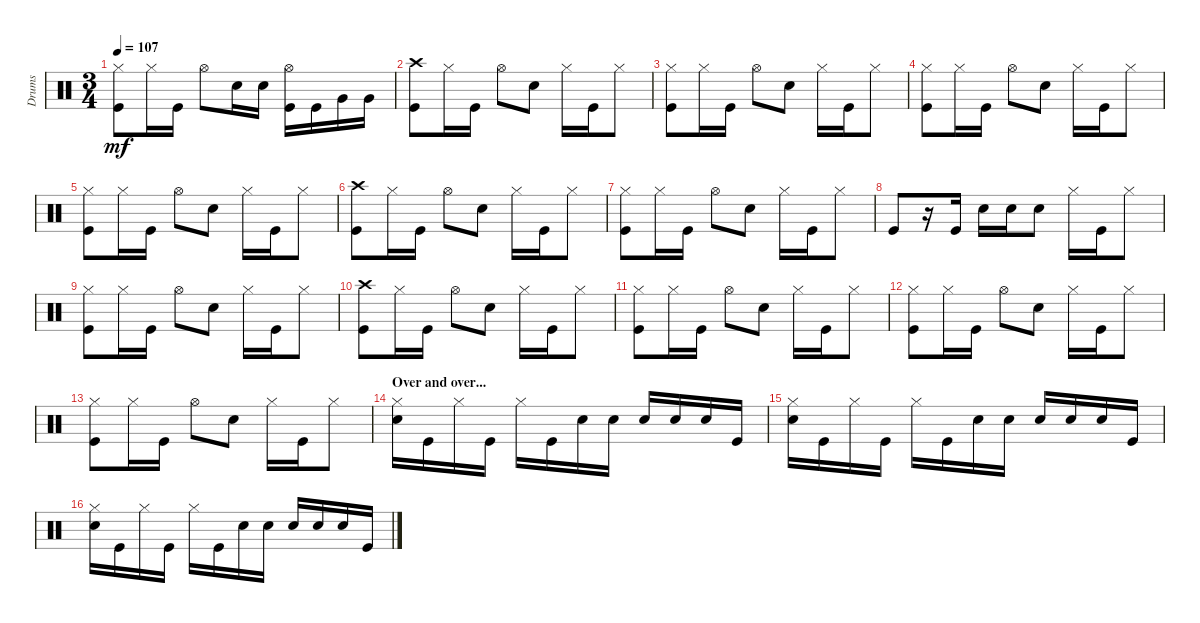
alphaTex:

\track ("Drums" "Drums") {instrument percussion}
\staff {score}
\articulation defaults
\ts (3 4)
\tempo 107
\clef neutral
\ks c
("Hi-Hat (closed)" "Kick (hit)").8{dy mf} "Hi-Hat (closed)".16 "Kick (hit)".16 "Hi-Hat (open)".8 "Snare (hit) 2".16 "Snare (hit) 2".16 ("Kick (hit)" "Hi-Hat (open)").16 "Kick (hit)".16 "Very Low Tom (hit)".16 "Very Low Tom (hit)".16 |
("Crash high (hit)" "Kick (hit)").8 "Hi-Hat (closed)".16 "Kick (hit)".16 "Hi-Hat (open)".8 "Snare (hit) 2".8 "Hi-Hat (closed)".16 "Kick (hit)".16 "Hi-Hat (closed)".8 |
("Hi-Hat (closed)" "Kick (hit)").8 "Hi-Hat (closed)".16 "Kick (hit)".16 "Hi-Hat (open)".8 "Snare (hit) 2".8 "Hi-Hat (closed)".16 "Kick (hit)".16 "Hi-Hat (closed)".8 |
("Hi-Hat (closed)" "Kick (hit)").8 "Hi-Hat (closed)".16 "Kick (hit)".16 "Hi-Hat (open)".8 "Snare (hit) 2".8 "Hi-Hat (closed)".16 "Kick (hit)".16 "Hi-Hat (closed)".8 |
("Hi-Hat (closed)" "Kick (hit)").8 "Hi-Hat (closed)".16 "Kick (hit)".16 "Hi-Hat (open)".8 "Snare (hit) 2".8 "Hi-Hat (closed)".16 "Kick (hit)".16 "Hi-Hat (closed)".8 |
("Crash high (hit)" "Kick (hit)").8 "Hi-Hat (closed)".16 "Kick (hit)".16 "Hi-Hat (open)".8 "Snare (hit) 2".8 "Hi-Hat (closed)".16 "Kick (hit)".16 "Hi-Hat (closed)".8 |
("Hi-Hat (closed)" "Kick (hit)").8 "Hi-Hat (closed)".16 "Kick (hit)".16 "Hi-Hat (open)".8 "Snare (hit) 2".8 "Hi-Hat (closed)".16 "Kick (hit)".16 "Hi-Hat (closed)".8 |
"Kick (hit)".8 r.16 "Kick (hit)".16 "Snare (hit) 2".16 "Snare (hit) 2".16 "Snare (hit) 2".8 "Hi-Hat (closed)".16 "Kick (hit)".16 "Hi-Hat (closed)".8 |
("Hi-Hat (closed)" "Kick (hit)").8 "Hi-Hat (closed)".16 "Kick (hit)".16 "Hi-Hat (open)".8 "Snare (hit) 2".8 "Hi-Hat (closed)".16 "Kick (hit)".16 "Hi-Hat (closed)".8 |
("Crash high (hit)" "Kick (hit)").8 "Hi-Hat (closed)".16 "Kick (hit)".16 "Hi-Hat (open)".8 "Snare (hit) 2".8 "Hi-Hat (closed)".16 "Kick (hit)".16 "Hi-Hat (closed)".8 |
("Hi-Hat (closed)" "Kick (hit)").8 "Hi-Hat (closed)".16 "Kick (hit)".16 "Hi-Hat (open)".8 "Snare (hit) 2".8 "Hi-Hat (closed)".16 "Kick (hit)".16 "Hi-Hat (closed)".8 |
("Hi-Hat (closed)" "Kick (hit)").8 "Hi-Hat (closed)".16 "Kick (hit)".16 "Hi-Hat (open)".8 "Snare (hit) 2".8 "Hi-Hat (closed)".16 "Kick (hit)".16 "Hi-Hat (closed)".8 |
("Hi-Hat (closed)" "Kick (hit)").8 "Hi-Hat (closed)".16 "Kick (hit)".16 "Hi-Hat (open)".8 "Snare (hit) 2".8 "Hi-Hat (closed)".16 "Kick (hit)".16 "Hi-Hat (closed)".8 |
\section ("" "Over and over...")
("Snare (hit) 2" "Hi-Hat (closed)").16 "Kick (hit)".16 "Hi-Hat (closed)".16 "Kick (hit)".16 "Hi-Hat (closed)".16 "Kick (hit)".16 "Snare (hit) 2".16 "Snare (hit) 2".16 "Snare (hit) 2".16 "Snare (hit) 2".16 "Snare (hit) 2".16 "Kick (hit)".16 |
("Snare (hit) 2" "Hi-Hat (closed)").16 "Kick (hit)".16 "Hi-Hat (closed)".16 "Kick (hit)".16 "Hi-Hat (closed)".16 "Kick (hit)".16 "Snare (hit) 2".16 "Snare (hit) 2".16 "Snare (hit) 2".16 "Snare (hit) 2".16 "Snare (hit) 2".16 "Kick (hit)".16 |
("Snare (hit) 2" "Hi-Hat (closed)").16 "Kick (hit)".16 "Hi-Hat (closed)".16 "Kick (hit)".16 "Hi-Hat (closed)".16 "Kick (hit)".16 "Snare (hit) 2".16 "Snare (hit) 2".16 "Snare (hit) 2".16 "Snare (hit) 2".16 "Snare (hit) 2".16 "Kick (hit)".16
